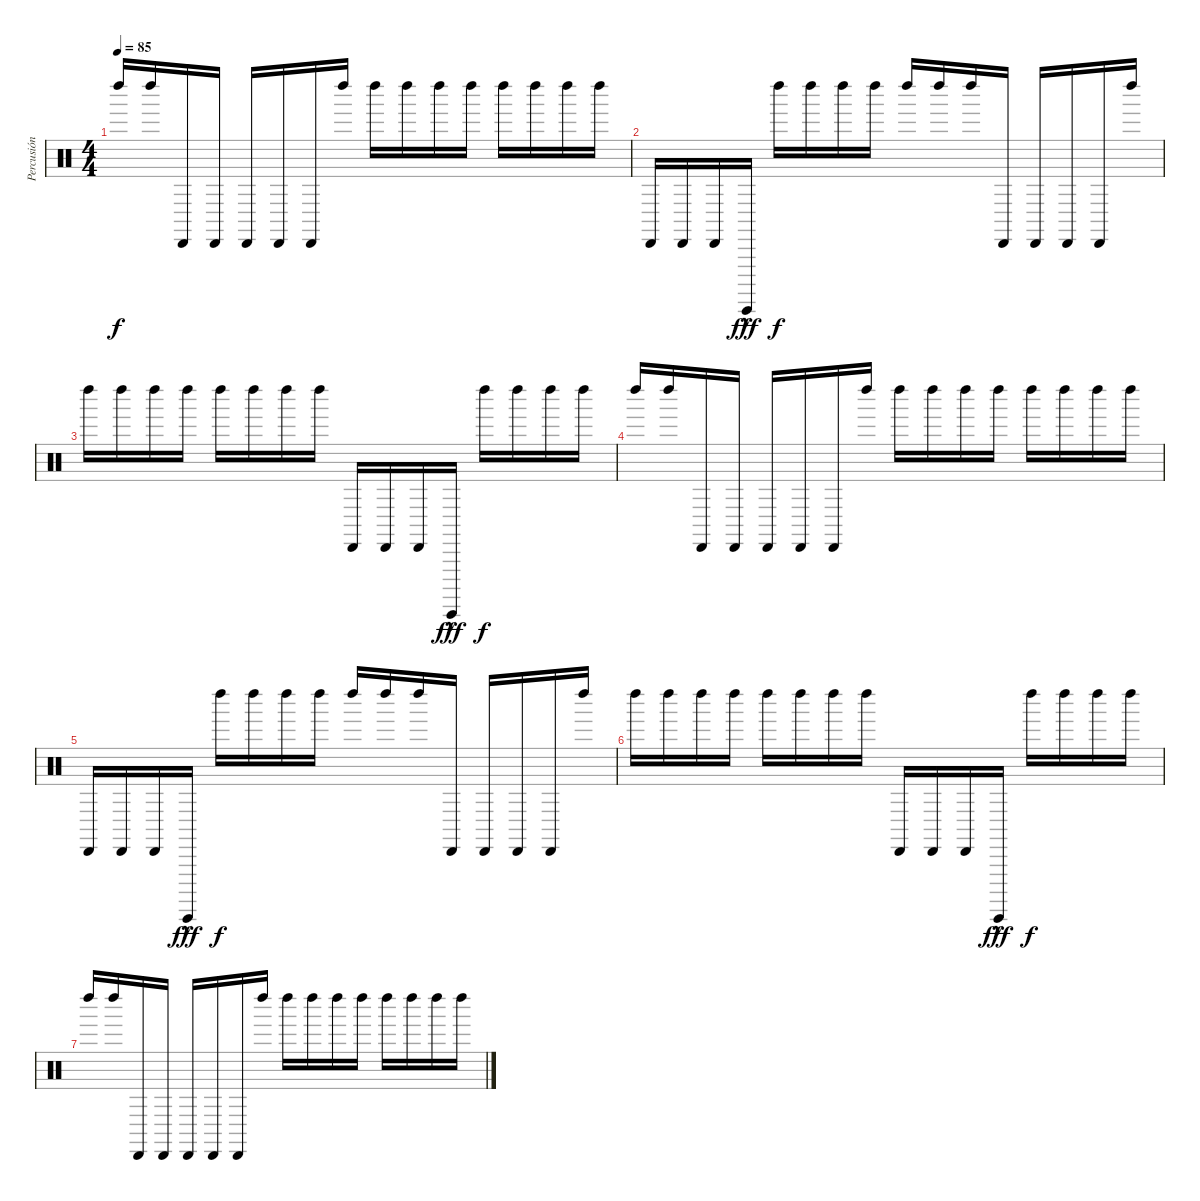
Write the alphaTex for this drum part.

\track ("Percusión" "Percusión") {instrument percussion}
\staff {score}
\articulation defaults
\ts (4 4)
\tempo 85
\clef neutral
\ks c "Left Maraca (hit)".16{dy f} "Left Maraca (hit)".16 "Cabasa (hit)".16 "Cabasa (hit)".16 "Cabasa (hit)".16 "Cabasa (hit)".16 "Cabasa (hit)".16 "Left Maraca (hit)".16 "Left Maraca (hit)".16 "Left Maraca (hit)".16 "Left Maraca (hit)".16 "Left Maraca (hit)".16 "Left Maraca (hit)".16 "Left Maraca (hit)".16 "Left Maraca (hit)".16 "Left Maraca (hit)".16
|
"Cabasa (hit)".16 "Cabasa (hit)".16 "Cabasa (hit)".16 "Guiro (hit)"{hac}.16{dy fff} "Left Maraca (hit)".16{dy f} "Left Maraca (hit)".16 "Left Maraca (hit)".16 "Left Maraca (hit)".16 "Left Maraca (hit)".16 "Left Maraca (hit)".16 "Left Maraca (hit)".16 "Cabasa (hit)".16 "Cabasa (hit)".16 "Cabasa (hit)".16 "Cabasa (hit)".16 "Left Maraca (hit)".16 |
"Left Maraca (hit)".16 "Left Maraca (hit)".16 "Left Maraca (hit)".16 "Left Maraca (hit)".16 "Left Maraca (hit)".16 "Left Maraca (hit)".16 "Left Maraca (hit)".16 "Left Maraca (hit)".16 "Cabasa (hit)".16 "Cabasa (hit)".16 "Cabasa (hit)".16 "Guiro (hit)"{hac}.16{dy fff} "Left Maraca (hit)".16{dy f} "Left Maraca (hit)".16 "Left Maraca (hit)".16 "Left Maraca (hit)".16 |
"Left Maraca (hit)".16 "Left Maraca (hit)".16 "Cabasa (hit)".16 "Cabasa (hit)".16 "Cabasa (hit)".16 "Cabasa (hit)".16 "Cabasa (hit)".16 "Left Maraca (hit)".16 "Left Maraca (hit)".16 "Left Maraca (hit)".16 "Left Maraca (hit)".16 "Left Maraca (hit)".16 "Left Maraca (hit)".16 "Left Maraca (hit)".16 "Left Maraca (hit)".16 "Left Maraca (hit)".16 |
"Cabasa (hit)".16 "Cabasa (hit)".16 "Cabasa (hit)".16 "Guiro (hit)"{hac}.16{dy fff} "Left Maraca (hit)".16{dy f} "Left Maraca (hit)".16 "Left Maraca (hit)".16 "Left Maraca (hit)".16 "Left Maraca (hit)".16 "Left Maraca (hit)".16 "Left Maraca (hit)".16 "Cabasa (hit)".16 "Cabasa (hit)".16 "Cabasa (hit)".16 "Cabasa (hit)".16 "Left Maraca (hit)".16 |
"Left Maraca (hit)".16 "Left Maraca (hit)".16 "Left Maraca (hit)".16 "Left Maraca (hit)".16 "Left Maraca (hit)".16 "Left Maraca (hit)".16 "Left Maraca (hit)".16 "Left Maraca (hit)".16 "Cabasa (hit)".16 "Cabasa (hit)".16 "Cabasa (hit)".16 "Guiro (hit)"{hac}.16{dy fff} "Left Maraca (hit)".16{dy f} "Left Maraca (hit)".16 "Left Maraca (hit)".16 "Left Maraca (hit)".16 |
"Left Maraca (hit)".16 "Left Maraca (hit)".16 "Cabasa (hit)".16 "Cabasa (hit)".16 "Cabasa (hit)".16 "Cabasa (hit)".16 "Cabasa (hit)".16 "Left Maraca (hit)".16 "Left Maraca (hit)".16 "Left Maraca (hit)".16 "Left Maraca (hit)".16 "Left Maraca (hit)".16 "Left Maraca (hit)".16 "Left Maraca (hit)".16 "Left Maraca (hit)".16 "Left Maraca (hit)".16
